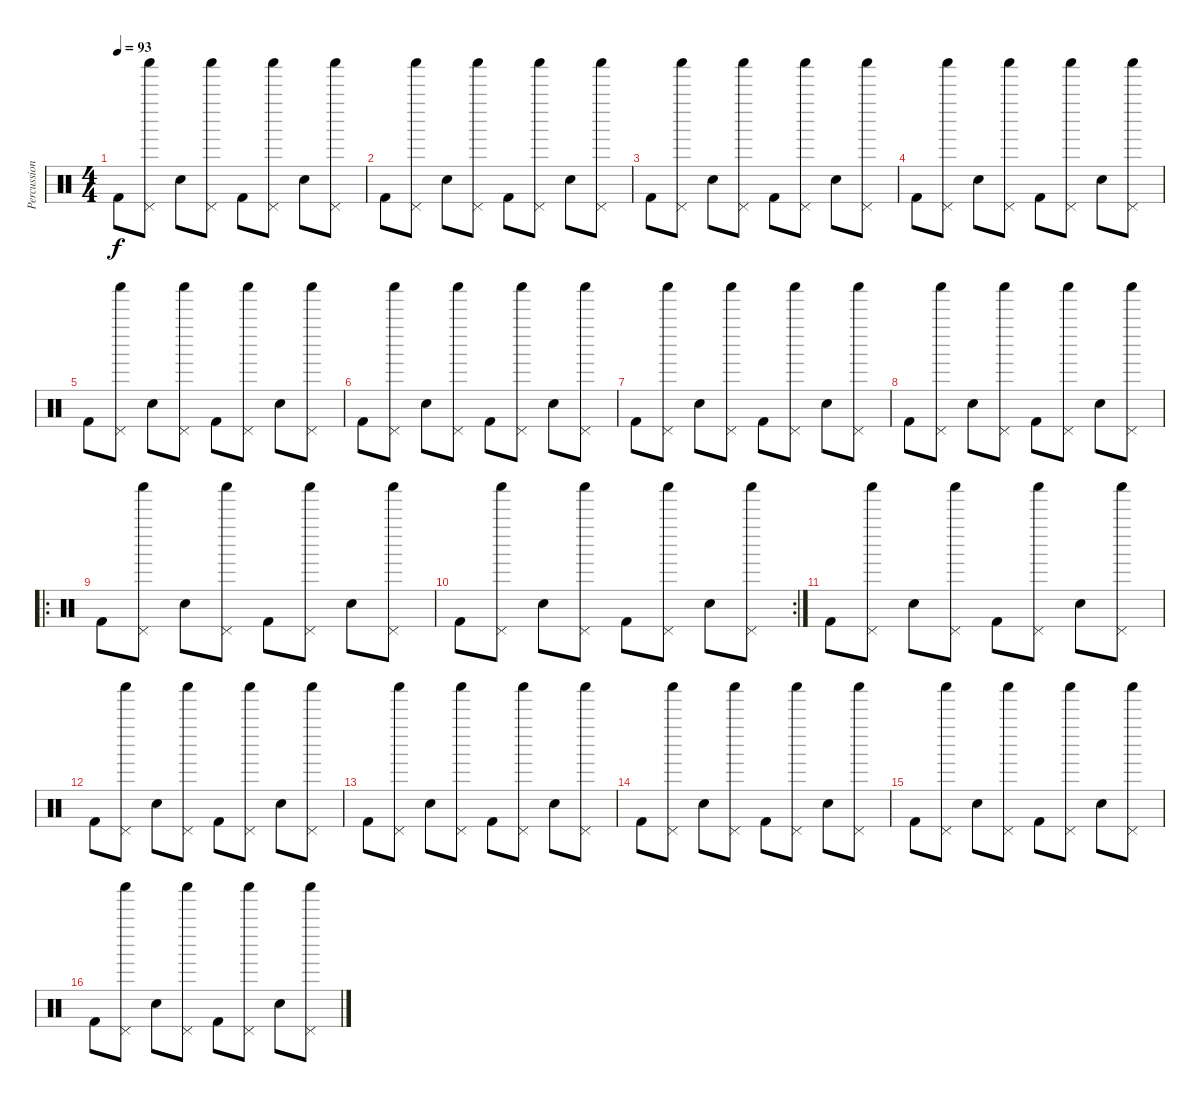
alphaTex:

\track ("Percussion" "Percussion") {instrument percussion}
\staff {score}
\articulation defaults
\ts (4 4)
\tempo 93
\clef neutral
\ks c "Kick (hit) 2".8{dy f}
("Shaker (hit)" "Pedal Hi-Hat (hit)").8 "Snare (hit) 2".8 ("Shaker (hit)" "Pedal Hi-Hat (hit)").8 "Kick (hit) 2".8 ("Shaker (hit)" "Pedal Hi-Hat (hit)").8 "Snare (hit) 2".8 ("Shaker (hit)" "Pedal Hi-Hat (hit)").8 |
"Kick (hit) 2".8 ("Shaker (hit)" "Pedal Hi-Hat (hit)").8 "Snare (hit) 2".8 ("Shaker (hit)" "Pedal Hi-Hat (hit)").8 "Kick (hit) 2".8 ("Shaker (hit)" "Pedal Hi-Hat (hit)").8 "Snare (hit) 2".8 ("Shaker (hit)" "Pedal Hi-Hat (hit)").8 |
"Kick (hit) 2".8 ("Shaker (hit)" "Pedal Hi-Hat (hit)").8 "Snare (hit) 2".8 ("Shaker (hit)" "Pedal Hi-Hat (hit)").8 "Kick (hit) 2".8 ("Shaker (hit)" "Pedal Hi-Hat (hit)").8 "Snare (hit) 2".8 ("Shaker (hit)" "Pedal Hi-Hat (hit)").8 |
"Kick (hit) 2".8 ("Shaker (hit)" "Pedal Hi-Hat (hit)").8 "Snare (hit) 2".8 ("Shaker (hit)" "Pedal Hi-Hat (hit)").8 "Kick (hit) 2".8 ("Shaker (hit)" "Pedal Hi-Hat (hit)").8 "Snare (hit) 2".8 ("Shaker (hit)" "Pedal Hi-Hat (hit)").8 |
"Kick (hit) 2".8 ("Shaker (hit)" "Pedal Hi-Hat (hit)").8 "Snare (hit) 2".8 ("Shaker (hit)" "Pedal Hi-Hat (hit)").8 "Kick (hit) 2".8 ("Shaker (hit)" "Pedal Hi-Hat (hit)").8 "Snare (hit) 2".8 ("Shaker (hit)" "Pedal Hi-Hat (hit)").8 |
"Kick (hit) 2".8 ("Shaker (hit)" "Pedal Hi-Hat (hit)").8 "Snare (hit) 2".8 ("Shaker (hit)" "Pedal Hi-Hat (hit)").8 "Kick (hit) 2".8 ("Shaker (hit)" "Pedal Hi-Hat (hit)").8 "Snare (hit) 2".8 ("Shaker (hit)" "Pedal Hi-Hat (hit)").8 |
"Kick (hit) 2".8 ("Shaker (hit)" "Pedal Hi-Hat (hit)").8 "Snare (hit) 2".8 ("Shaker (hit)" "Pedal Hi-Hat (hit)").8 "Kick (hit) 2".8 ("Shaker (hit)" "Pedal Hi-Hat (hit)").8 "Snare (hit) 2".8 ("Shaker (hit)" "Pedal Hi-Hat (hit)").8 |
"Kick (hit) 2".8 ("Shaker (hit)" "Pedal Hi-Hat (hit)").8 "Snare (hit) 2".8 ("Shaker (hit)" "Pedal Hi-Hat (hit)").8 "Kick (hit) 2".8 ("Shaker (hit)" "Pedal Hi-Hat (hit)").8 "Snare (hit) 2".8 ("Shaker (hit)" "Pedal Hi-Hat (hit)").8 |
\ro "Kick (hit) 2".8
("Shaker (hit)" "Pedal Hi-Hat (hit)").8 "Snare (hit) 2".8 ("Shaker (hit)" "Pedal Hi-Hat (hit)").8 "Kick (hit) 2".8 ("Shaker (hit)" "Pedal Hi-Hat (hit)").8 "Snare (hit) 2".8 ("Shaker (hit)" "Pedal Hi-Hat (hit)").8 |
\rc 2 "Kick (hit) 2".8
("Shaker (hit)" "Pedal Hi-Hat (hit)").8 "Snare (hit) 2".8 ("Shaker (hit)" "Pedal Hi-Hat (hit)").8 "Kick (hit) 2".8 ("Shaker (hit)" "Pedal Hi-Hat (hit)").8 "Snare (hit) 2".8 ("Shaker (hit)" "Pedal Hi-Hat (hit)").8 |
"Kick (hit) 2".8 ("Shaker (hit)" "Pedal Hi-Hat (hit)").8 "Snare (hit) 2".8 ("Shaker (hit)" "Pedal Hi-Hat (hit)").8 "Kick (hit) 2".8 ("Shaker (hit)" "Pedal Hi-Hat (hit)").8 "Snare (hit) 2".8 ("Shaker (hit)" "Pedal Hi-Hat (hit)").8 |
"Kick (hit) 2".8 ("Shaker (hit)" "Pedal Hi-Hat (hit)").8 "Snare (hit) 2".8 ("Shaker (hit)" "Pedal Hi-Hat (hit)").8 "Kick (hit) 2".8 ("Shaker (hit)" "Pedal Hi-Hat (hit)").8 "Snare (hit) 2".8 ("Shaker (hit)" "Pedal Hi-Hat (hit)").8 |
"Kick (hit) 2".8 ("Shaker (hit)" "Pedal Hi-Hat (hit)").8 "Snare (hit) 2".8 ("Shaker (hit)" "Pedal Hi-Hat (hit)").8 "Kick (hit) 2".8 ("Shaker (hit)" "Pedal Hi-Hat (hit)").8 "Snare (hit) 2".8 ("Shaker (hit)" "Pedal Hi-Hat (hit)").8 |
"Kick (hit) 2".8 ("Shaker (hit)" "Pedal Hi-Hat (hit)").8 "Snare (hit) 2".8 ("Shaker (hit)" "Pedal Hi-Hat (hit)").8 "Kick (hit) 2".8 ("Shaker (hit)" "Pedal Hi-Hat (hit)").8 "Snare (hit) 2".8 ("Shaker (hit)" "Pedal Hi-Hat (hit)").8 |
"Kick (hit) 2".8 ("Shaker (hit)" "Pedal Hi-Hat (hit)").8 "Snare (hit) 2".8 ("Shaker (hit)" "Pedal Hi-Hat (hit)").8 "Kick (hit) 2".8 ("Shaker (hit)" "Pedal Hi-Hat (hit)").8 "Snare (hit) 2".8 ("Shaker (hit)" "Pedal Hi-Hat (hit)").8 |
"Kick (hit) 2".8 ("Shaker (hit)" "Pedal Hi-Hat (hit)").8 "Snare (hit) 2".8 ("Shaker (hit)" "Pedal Hi-Hat (hit)").8 "Kick (hit) 2".8 ("Shaker (hit)" "Pedal Hi-Hat (hit)").8 "Snare (hit) 2".8 ("Shaker (hit)" "Pedal Hi-Hat (hit)").8
